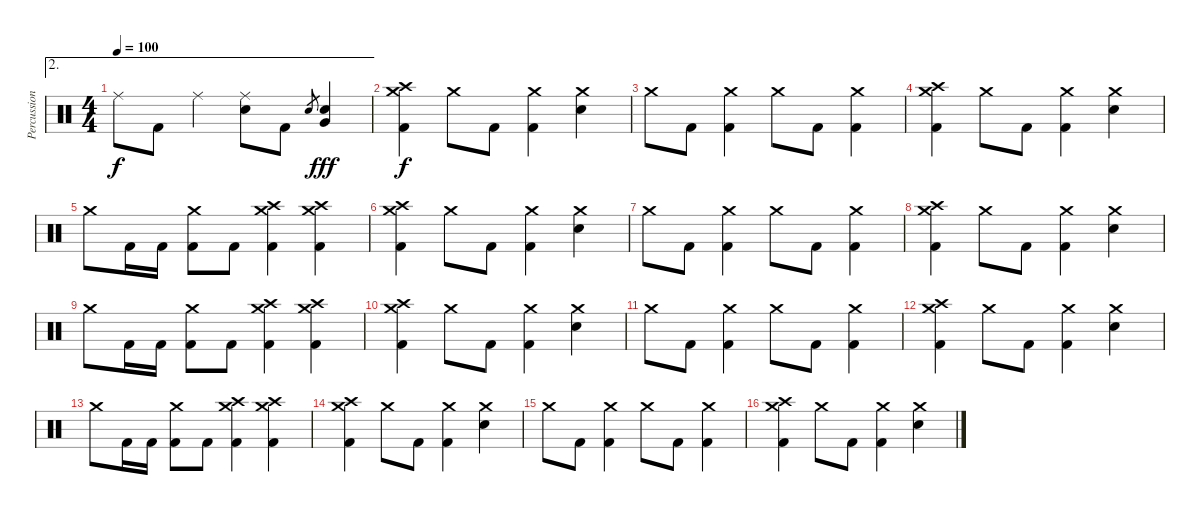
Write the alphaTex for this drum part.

\track ("Percussion" "Percussion") {instrument percussion}
\staff {score}
\articulation defaults
\ae 2
\ts (4 4)
\tempo 100
\clef neutral
\ks c "Ride (middle)".8{dy f} "Kick (hit) 2".8 "Ride (middle)".4
("Ride (middle)" "Snare (hit) 2").8 "Kick (hit) 2".8 "Snare (hit) 2".8{gr} ("Very Low Tom (hit)" "Snare (hit) 2").4{dy fff} |
("Crash high (hit)" "Crash medium (hit)" "Kick (hit) 2").4{dy f} "Crash medium (hit)".8 "Kick (hit) 2".8 ("Crash medium (hit)" "Kick (hit) 2").4 ("Crash medium (hit)" "Snare (hit) 2").4 |
"Crash medium (hit)".8 "Kick (hit) 2".8 ("Crash medium (hit)" "Kick (hit) 2").4 "Crash medium (hit)".8 "Kick (hit) 2".8 ("Crash medium (hit)" "Kick (hit) 2").4 |
("Crash high (hit)" "Crash medium (hit)" "Kick (hit) 2").4 "Crash medium (hit)".8 "Kick (hit) 2".8 ("Crash medium (hit)" "Kick (hit) 2").4 ("Crash medium (hit)" "Snare (hit) 2").4 |
"Crash medium (hit)".8 "Kick (hit) 2".16 "Kick (hit) 2".16 ("Crash medium (hit)" "Kick (hit) 2").8 "Kick (hit) 2".8 ("Crash medium (hit)" "Crash high (hit)" "Kick (hit) 2").4 ("Crash medium (hit)" "Crash high (hit)" "Kick (hit) 2").4 |
("Crash high (hit)" "Crash medium (hit)" "Kick (hit) 2").4 "Crash medium (hit)".8 "Kick (hit) 2".8 ("Crash medium (hit)" "Kick (hit) 2").4 ("Crash medium (hit)" "Snare (hit) 2").4 |
"Crash medium (hit)".8 "Kick (hit) 2".8 ("Crash medium (hit)" "Kick (hit) 2").4 "Crash medium (hit)".8 "Kick (hit) 2".8 ("Crash medium (hit)" "Kick (hit) 2").4 |
("Crash high (hit)" "Crash medium (hit)" "Kick (hit) 2").4 "Crash medium (hit)".8 "Kick (hit) 2".8 ("Crash medium (hit)" "Kick (hit) 2").4 ("Crash medium (hit)" "Snare (hit) 2").4 |
"Crash medium (hit)".8 "Kick (hit) 2".16 "Kick (hit) 2".16 ("Crash medium (hit)" "Kick (hit) 2").8 "Kick (hit) 2".8 ("Crash medium (hit)" "Crash high (hit)" "Kick (hit) 2").4 ("Crash medium (hit)" "Crash high (hit)" "Kick (hit) 2").4 |
("Crash high (hit)" "Crash medium (hit)" "Kick (hit) 2").4 "Crash medium (hit)".8 "Kick (hit) 2".8 ("Crash medium (hit)" "Kick (hit) 2").4 ("Crash medium (hit)" "Snare (hit) 2").4 |
"Crash medium (hit)".8 "Kick (hit) 2".8 ("Crash medium (hit)" "Kick (hit) 2").4 "Crash medium (hit)".8 "Kick (hit) 2".8 ("Crash medium (hit)" "Kick (hit) 2").4 |
("Crash high (hit)" "Crash medium (hit)" "Kick (hit) 2").4 "Crash medium (hit)".8 "Kick (hit) 2".8 ("Crash medium (hit)" "Kick (hit) 2").4 ("Crash medium (hit)" "Snare (hit) 2").4 |
"Crash medium (hit)".8 "Kick (hit) 2".16 "Kick (hit) 2".16 ("Crash medium (hit)" "Kick (hit) 2").8 "Kick (hit) 2".8 ("Crash medium (hit)" "Crash high (hit)" "Kick (hit) 2").4 ("Crash medium (hit)" "Crash high (hit)" "Kick (hit) 2").4 |
("Crash high (hit)" "Crash medium (hit)" "Kick (hit) 2").4 "Crash medium (hit)".8 "Kick (hit) 2".8 ("Crash medium (hit)" "Kick (hit) 2").4 ("Crash medium (hit)" "Snare (hit) 2").4 |
"Crash medium (hit)".8 "Kick (hit) 2".8 ("Crash medium (hit)" "Kick (hit) 2").4 "Crash medium (hit)".8 "Kick (hit) 2".8 ("Crash medium (hit)" "Kick (hit) 2").4 |
("Crash high (hit)" "Crash medium (hit)" "Kick (hit) 2").4 "Crash medium (hit)".8 "Kick (hit) 2".8 ("Crash medium (hit)" "Kick (hit) 2").4 ("Crash medium (hit)" "Snare (hit) 2").4
